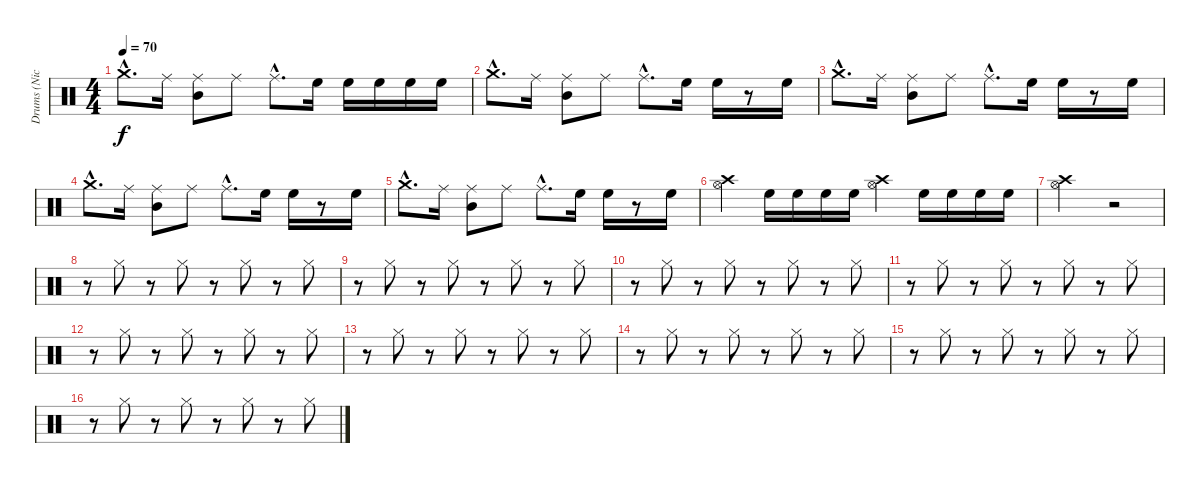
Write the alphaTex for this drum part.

\track ("Drums (Nick Mason)" "Drums (Nic") {instrument percussion}
\staff {score}
\articulation defaults
\ts (4 4)
\tempo 70
\clef neutral
\ks c "Crash medium (hit)"{hac}.8{d dy f} "Ride (middle)".16
("Ride (middle)" "Mid Tom (hit)").8 "Ride (middle)".8 "Ride (middle)"{hac}.8{d} "High Floor Tom (hit)".16 "High Floor Tom (hit)".16 "High Floor Tom (hit)".16 "High Floor Tom (hit)".16 "High Floor Tom (hit)".16 |
"Crash medium (hit)"{hac}.8{d} "Ride (middle)".16 ("Ride (middle)" "Mid Tom (hit)").8 "Ride (middle)".8 "Ride (middle)"{hac}.8{d} "High Floor Tom (hit)".16 "High Floor Tom (hit)".16 r.8 "High Floor Tom (hit)".16 |
"Crash medium (hit)"{hac}.8{d} "Ride (middle)".16 ("Ride (middle)" "Mid Tom (hit)").8 "Ride (middle)".8 "Ride (middle)"{hac}.8{d} "High Floor Tom (hit)".16 "High Floor Tom (hit)".16 r.8 "High Floor Tom (hit)".16 |
"Crash medium (hit)"{hac}.8{d} "Ride (middle)".16 ("Ride (middle)" "Mid Tom (hit)").8 "Ride (middle)".8 "Ride (middle)"{hac}.8{d} "High Floor Tom (hit)".16 "High Floor Tom (hit)".16 r.8 "High Floor Tom (hit)".16 |
"Crash medium (hit)"{hac}.8{d} "Ride (middle)".16 ("Ride (middle)" "Mid Tom (hit)").8 "Ride (middle)".8 "Ride (middle)"{hac}.8{d} "High Floor Tom (hit)".16 "High Floor Tom (hit)".16 r.8 "High Floor Tom (hit)".16 |
("Crash high (hit)" "Hi-Hat (open)").4 "High Floor Tom (hit)".16 "High Floor Tom (hit)".16 "High Floor Tom (hit)".16 "High Floor Tom (hit)".16 ("Crash high (hit)" "Hi-Hat (open)").4 "High Floor Tom (hit)".16 "High Floor Tom (hit)".16 "High Floor Tom (hit)".16 "High Floor Tom (hit)".16 |
("Crash high (hit)" "Hi-Hat (open)").2 r.2 |
r.8 "Hi-Hat (closed)".8 r.8 "Hi-Hat (closed)".8 r.8 "Hi-Hat (closed)".8 r.8 "Hi-Hat (closed)".8 |
r.8 "Hi-Hat (closed)".8 r.8 "Hi-Hat (closed)".8 r.8 "Hi-Hat (closed)".8 r.8 "Hi-Hat (closed)".8 |
r.8 "Hi-Hat (closed)".8 r.8 "Hi-Hat (closed)".8 r.8 "Hi-Hat (closed)".8 r.8 "Hi-Hat (closed)".8 |
r.8 "Hi-Hat (closed)".8 r.8 "Hi-Hat (closed)".8 r.8 "Hi-Hat (closed)".8 r.8 "Hi-Hat (closed)".8 |
r.8 "Hi-Hat (closed)".8 r.8 "Hi-Hat (closed)".8 r.8 "Hi-Hat (closed)".8 r.8 "Hi-Hat (closed)".8 |
r.8 "Hi-Hat (closed)".8 r.8 "Hi-Hat (closed)".8 r.8 "Hi-Hat (closed)".8 r.8 "Hi-Hat (closed)".8 |
r.8 "Hi-Hat (closed)".8 r.8 "Hi-Hat (closed)".8 r.8 "Hi-Hat (closed)".8 r.8 "Hi-Hat (closed)".8 |
r.8 "Hi-Hat (closed)".8 r.8 "Hi-Hat (closed)".8 r.8 "Hi-Hat (closed)".8 r.8 "Hi-Hat (closed)".8 |
r.8 "Hi-Hat (closed)".8 r.8 "Hi-Hat (closed)".8 r.8 "Hi-Hat (closed)".8 r.8 "Hi-Hat (closed)".8
